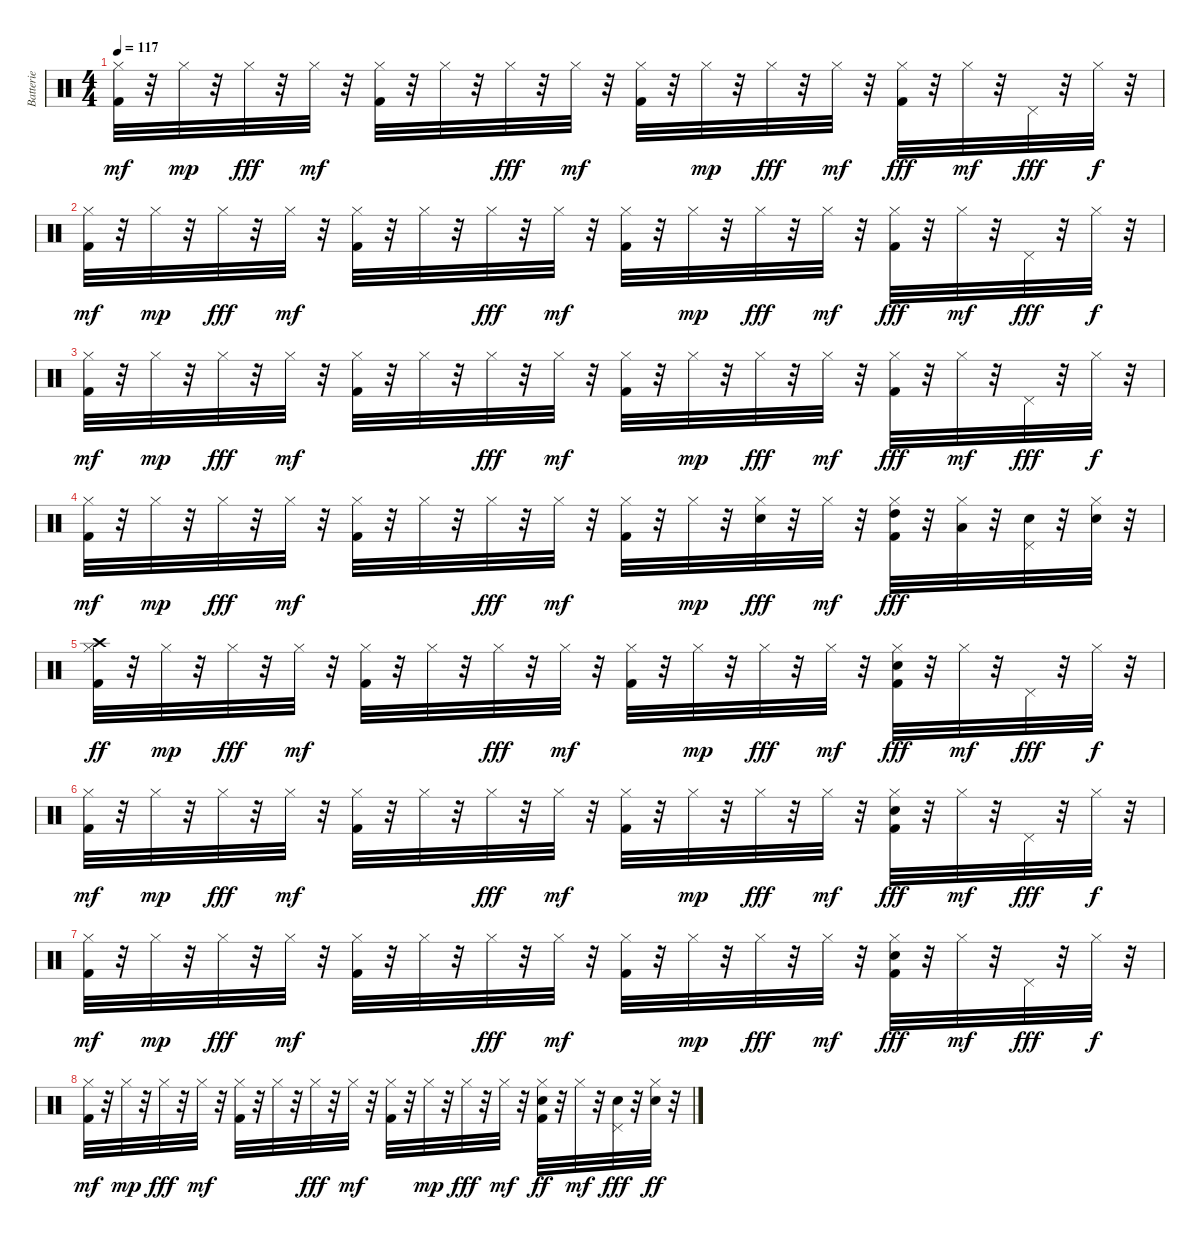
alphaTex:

\track ("Batterie" "Batterie") {instrument percussion}
\staff {score}
\articulation defaults
\ts (4 4)
\tempo 117
\clef neutral
\ks c
("Kick (hit) 2" "Hi-Hat (closed)").32{dy mf} r.32 "Hi-Hat (closed)".32{dy mp} r.32 "Hi-Hat (closed)".32{dy fff} r.32 "Hi-Hat (closed)".32{dy mf} r.32 ("Kick (hit) 2" "Hi-Hat (closed)").32 r.32 "Hi-Hat (closed)".32 r.32 "Hi-Hat (closed)".32{dy fff} r.32 "Hi-Hat (closed)".32{dy mf} r.32 ("Kick (hit) 2" "Hi-Hat (closed)").32 r.32 "Hi-Hat (closed)".32{dy mp} r.32 "Hi-Hat (closed)".32{dy fff} r.32 "Hi-Hat (closed)".32{dy mf} r.32 ("Kick (hit) 2" "Hi-Hat (closed)").32{dy fff} r.32 "Hi-Hat (closed)".32{dy mf} r.32 "Pedal Hi-Hat (hit)".32{dy fff} r.32 "Hi-Hat (closed)".32{dy f} r.32 |
("Kick (hit) 2" "Hi-Hat (closed)").32{dy mf} r.32 "Hi-Hat (closed)".32{dy mp} r.32 "Hi-Hat (closed)".32{dy fff} r.32 "Hi-Hat (closed)".32{dy mf} r.32 ("Kick (hit) 2" "Hi-Hat (closed)").32 r.32 "Hi-Hat (closed)".32 r.32 "Hi-Hat (closed)".32{dy fff} r.32 "Hi-Hat (closed)".32{dy mf} r.32 ("Kick (hit) 2" "Hi-Hat (closed)").32 r.32 "Hi-Hat (closed)".32{dy mp} r.32 "Hi-Hat (closed)".32{dy fff} r.32 "Hi-Hat (closed)".32{dy mf} r.32 ("Kick (hit) 2" "Hi-Hat (closed)").32{dy fff} r.32 "Hi-Hat (closed)".32{dy mf} r.32 "Pedal Hi-Hat (hit)".32{dy fff} r.32 "Hi-Hat (closed)".32{dy f} r.32 |
("Kick (hit) 2" "Hi-Hat (closed)").32{dy mf} r.32 "Hi-Hat (closed)".32{dy mp} r.32 "Hi-Hat (closed)".32{dy fff} r.32 "Hi-Hat (closed)".32{dy mf} r.32 ("Kick (hit) 2" "Hi-Hat (closed)").32 r.32 "Hi-Hat (closed)".32 r.32 "Hi-Hat (closed)".32{dy fff} r.32 "Hi-Hat (closed)".32{dy mf} r.32 ("Kick (hit) 2" "Hi-Hat (closed)").32 r.32 "Hi-Hat (closed)".32{dy mp} r.32 "Hi-Hat (closed)".32{dy fff} r.32 "Hi-Hat (closed)".32{dy mf} r.32 ("Kick (hit) 2" "Hi-Hat (closed)").32{dy fff} r.32 "Hi-Hat (closed)".32{dy mf} r.32 "Pedal Hi-Hat (hit)".32{dy fff} r.32 "Hi-Hat (closed)".32{dy f} r.32 |
("Kick (hit) 2" "Hi-Hat (closed)").32{dy mf} r.32 "Hi-Hat (closed)".32{dy mp} r.32 "Hi-Hat (closed)".32{dy fff} r.32 "Hi-Hat (closed)".32{dy mf} r.32 ("Kick (hit) 2" "Hi-Hat (closed)").32 r.32 "Hi-Hat (closed)".32 r.32 "Hi-Hat (closed)".32{dy fff} r.32 "Hi-Hat (closed)".32{dy mf} r.32 ("Kick (hit) 2" "Hi-Hat (closed)").32 r.32 "Hi-Hat (closed)".32{dy mp} r.32 ("Electric Snare (hit)" "Hi-Hat (closed)").32{dy fff} r.32 "Hi-Hat (closed)".32{dy mf} r.32 ("Kick (hit) 2" "Hi-Hat (closed)" "High Tom (hit)").32{dy fff} r.32 ("Hi-Hat (closed)" "Low Tom (hit)").32 r.32 ("Electric Snare (hit)" "Pedal Hi-Hat (hit)").32 r.32 ("Electric Snare (hit)" "Hi-Hat (closed)").32 r.32 |
("Kick (hit) 2" "Hi-Hat (closed)" "Crash high (hit)").32{dy ff} r.32 "Hi-Hat (closed)".32{dy mp} r.32 "Hi-Hat (closed)".32{dy fff} r.32 "Hi-Hat (closed)".32{dy mf} r.32 ("Kick (hit) 2" "Hi-Hat (closed)").32 r.32 "Hi-Hat (closed)".32 r.32 "Hi-Hat (closed)".32{dy fff} r.32 "Hi-Hat (closed)".32{dy mf} r.32 ("Kick (hit) 2" "Hi-Hat (closed)").32 r.32 "Hi-Hat (closed)".32{dy mp} r.32 "Hi-Hat (closed)".32{dy fff} r.32 "Hi-Hat (closed)".32{dy mf} r.32 ("Kick (hit) 2" "Electric Snare (hit)" "Hi-Hat (closed)").32{dy fff} r.32 "Hi-Hat (closed)".32{dy mf} r.32 "Pedal Hi-Hat (hit)".32{dy fff} r.32 "Hi-Hat (closed)".32{dy f} r.32 |
("Kick (hit) 2" "Hi-Hat (closed)").32{dy mf} r.32 "Hi-Hat (closed)".32{dy mp} r.32 "Hi-Hat (closed)".32{dy fff} r.32 "Hi-Hat (closed)".32{dy mf} r.32 ("Kick (hit) 2" "Hi-Hat (closed)").32 r.32 "Hi-Hat (closed)".32 r.32 "Hi-Hat (closed)".32{dy fff} r.32 "Hi-Hat (closed)".32{dy mf} r.32 ("Kick (hit) 2" "Hi-Hat (closed)").32 r.32 "Hi-Hat (closed)".32{dy mp} r.32 "Hi-Hat (closed)".32{dy fff} r.32 "Hi-Hat (closed)".32{dy mf} r.32 ("Kick (hit) 2" "Electric Snare (hit)" "Hi-Hat (closed)").32{dy fff} r.32 "Hi-Hat (closed)".32{dy mf} r.32 "Pedal Hi-Hat (hit)".32{dy fff} r.32 "Hi-Hat (closed)".32{dy f} r.32 |
("Kick (hit) 2" "Hi-Hat (closed)").32{dy mf} r.32 "Hi-Hat (closed)".32{dy mp} r.32 "Hi-Hat (closed)".32{dy fff} r.32 "Hi-Hat (closed)".32{dy mf} r.32 ("Kick (hit) 2" "Hi-Hat (closed)").32 r.32 "Hi-Hat (closed)".32 r.32 "Hi-Hat (closed)".32{dy fff} r.32 "Hi-Hat (closed)".32{dy mf} r.32 ("Kick (hit) 2" "Hi-Hat (closed)").32 r.32 "Hi-Hat (closed)".32{dy mp} r.32 "Hi-Hat (closed)".32{dy fff} r.32 "Hi-Hat (closed)".32{dy mf} r.32 ("Kick (hit) 2" "Electric Snare (hit)" "Hi-Hat (closed)").32{dy fff} r.32 "Hi-Hat (closed)".32{dy mf} r.32 "Pedal Hi-Hat (hit)".32{dy fff} r.32 "Hi-Hat (closed)".32{dy f} r.32 |
("Kick (hit) 2" "Hi-Hat (closed)").32{dy mf} r.32 "Hi-Hat (closed)".32{dy mp} r.32 "Hi-Hat (closed)".32{dy fff} r.32 "Hi-Hat (closed)".32{dy mf} r.32 ("Kick (hit) 2" "Hi-Hat (closed)").32 r.32 "Hi-Hat (closed)".32 r.32 "Hi-Hat (closed)".32{dy fff} r.32 "Hi-Hat (closed)".32{dy mf} r.32 ("Kick (hit) 2" "Hi-Hat (closed)").32 r.32 "Hi-Hat (closed)".32{dy mp} r.32 "Hi-Hat (closed)".32{dy fff} r.32 "Hi-Hat (closed)".32{dy mf} r.32 ("Kick (hit) 2" "Electric Snare (hit)" "Hi-Hat (closed)").32{dy ff} r.32 "Hi-Hat (closed)".32{dy mf} r.32 ("Electric Snare (hit)" "Pedal Hi-Hat (hit)").32{dy fff} r.32 ("Electric Snare (hit)" "Hi-Hat (closed)").32{dy ff} r.32
